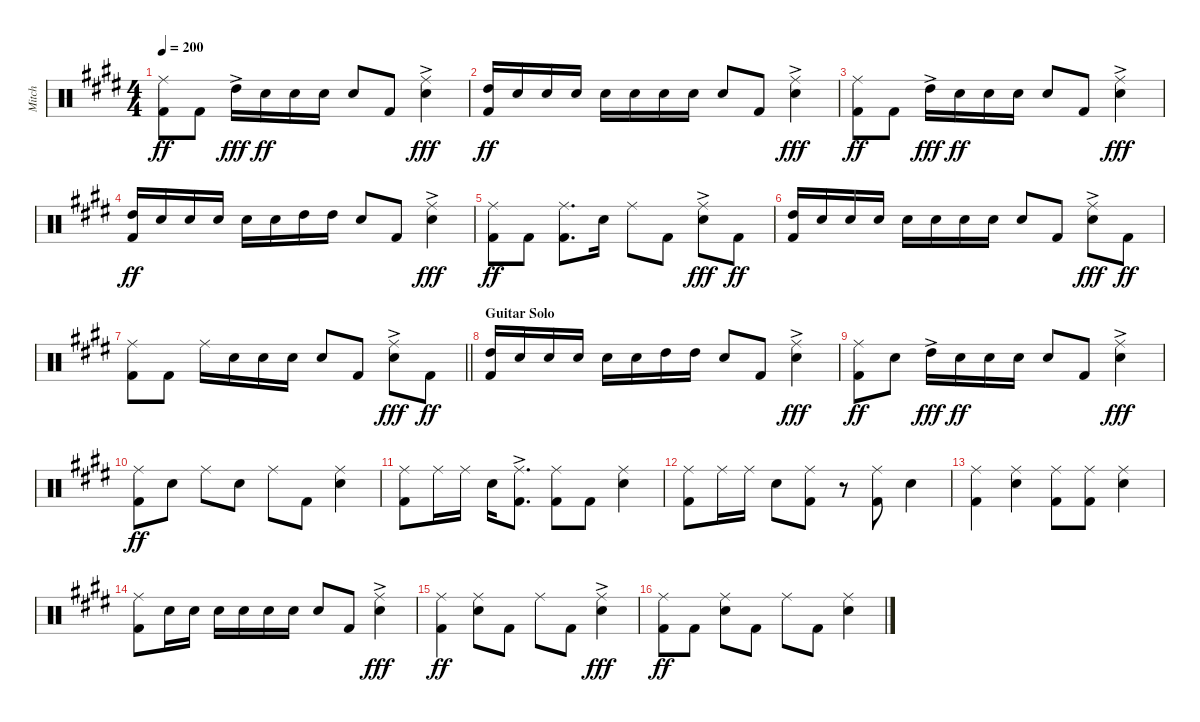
\track ("Mitch" "Mitch") {instrument percussion}
\staff {score}
\articulation defaults
\ts (4 4)
\tempo 200
\clef neutral
\ks e
("Ride (middle)" "Kick (hit) 2").8{dy ff} "Kick (hit) 2".8 "High Tom (hit)"{ac}.16{dy fff} "Snare (hit) 2".16{dy ff} "Snare (hit) 2".16 "Snare (hit) 2".16 "Snare (hit) 2".8 "Kick (hit) 2".8 ("Ride (middle)" "Snare (hit) 2"{ac}).4{dy fff} |
("High Tom (hit)" "Kick (hit) 2").16{dy ff} "Snare (hit) 2".16 "Snare (hit) 2".16 "Snare (hit) 2".16 "Snare (hit) 2".16 "Snare (hit) 2".16 "Snare (hit) 2".16 "Snare (hit) 2".16 "Snare (hit) 2".8 "Kick (hit) 2".8 ("Ride (middle)" "Snare (hit) 2"{ac}).4{dy fff} |
("Ride (middle)" "Kick (hit) 2").8{dy ff} "Kick (hit) 2".8 "High Tom (hit)"{ac}.16{dy fff} "Snare (hit) 2".16{dy ff} "Snare (hit) 2".16 "Snare (hit) 2".16 "Snare (hit) 2".8 "Kick (hit) 2".8 ("Ride (middle)" "Snare (hit) 2"{ac}).4{dy fff} |
("High Tom (hit)" "Kick (hit) 2").16{dy ff} "Snare (hit) 2".16 "Snare (hit) 2".16 "Snare (hit) 2".16 "Snare (hit) 2".16 "Snare (hit) 2".16 "High Tom (hit)".16 "High Tom (hit)".16 "Snare (hit) 2".8 "Kick (hit) 2".8 ("Ride (middle)" "Snare (hit) 2"{ac}).4{dy fff} |
("Ride (middle)" "Kick (hit) 2").8{dy ff} "Kick (hit) 2".8 ("Ride (middle)" "Kick (hit) 2").8{d} "Snare (hit) 2".16 "Ride (middle)".8 "Kick (hit) 2".8 ("Ride (middle)" "Snare (hit) 2"{ac}).8{dy fff} "Kick (hit) 2".8{dy ff} |
("High Tom (hit)" "Kick (hit) 2").16 "Snare (hit) 2".16 "Snare (hit) 2".16 "Snare (hit) 2".16 "Snare (hit) 2".16 "Snare (hit) 2".16 "Snare (hit) 2".16 "Snare (hit) 2".16 "Snare (hit) 2".8 "Kick (hit) 2".8 ("Ride (middle)" "Snare (hit) 2"{ac}).8{dy fff} "Kick (hit) 2".8{dy ff} |
\barLineRight lightlight
("Ride (middle)" "Kick (hit) 2").8 "Kick (hit) 2".8 "Ride (middle)".16 "Snare (hit) 2".16 "Snare (hit) 2".16 "Snare (hit) 2".16 "Snare (hit) 2".8 "Kick (hit) 2".8 ("Ride (middle)" "Snare (hit) 2"{ac}).8{dy fff} "Kick (hit) 2".8{dy ff} |
\section ("" "Guitar Solo")
("High Tom (hit)" "Kick (hit) 2").16 "Snare (hit) 2".16 "Snare (hit) 2".16 "Snare (hit) 2".16 "Snare (hit) 2".16 "Snare (hit) 2".16 "High Tom (hit)".16 "High Tom (hit)".16 "Snare (hit) 2".8 "Kick (hit) 2".8 ("Ride (middle)" "Snare (hit) 2"{ac}).4{dy fff} |
("Ride (middle)" "Kick (hit) 2").8{dy ff} "Snare (hit) 2".8 "High Tom (hit)"{ac}.16{dy fff} "Snare (hit) 2".16{dy ff} "Snare (hit) 2".16 "Snare (hit) 2".16 "Snare (hit) 2".8 "Kick (hit) 2".8 ("Ride (middle)" "Snare (hit) 2"{ac}).4{dy fff} |
("Ride (middle)" "Kick (hit) 2").8{dy ff} "Snare (hit) 2".8 "Ride (middle)".8 "Snare (hit) 2".8 "Ride (middle)".8 "Kick (hit) 2".8 ("Ride (middle)" "Snare (hit) 2").4 |
("Ride (middle)" "Kick (hit) 2").8 "Ride (middle)".16 "Ride (middle)".16 "Snare (hit) 2".16 ("Ride (middle)"{ac} "Kick (hit) 2").8{d} ("Ride (middle)" "Kick (hit) 2").8 "Kick (hit) 2".8 ("Ride (middle)" "Snare (hit) 2").4 |
("Ride (middle)" "Kick (hit) 2").8 "Ride (middle)".16 "Ride (middle)".16 "Snare (hit) 2".8 ("Ride (middle)" "Kick (hit) 2").8 r.8 ("Ride (middle)" "Kick (hit) 2").8 "Snare (hit) 2".4 |
("Ride (middle)" "Kick (hit) 2").4 ("Ride (middle)" "Snare (hit) 2").4 ("Ride (middle)" "Kick (hit) 2").8 ("Ride (middle)" "Kick (hit) 2").8 ("Ride (middle)" "Snare (hit) 2").4 |
("Ride (middle)" "Kick (hit) 2").8 "Snare (hit) 2".16 "Snare (hit) 2".16 "Snare (hit) 2".16 "Snare (hit) 2".16 "Snare (hit) 2".16 "Snare (hit) 2".16 "Snare (hit) 2".8 "Kick (hit) 2".8 ("Ride (middle)"{ac} "Snare (hit) 2"{ac}).4{dy fff} |
("Ride (middle)" "Kick (hit) 2").4{dy ff} ("Ride (middle)" "Snare (hit) 2").8 "Kick (hit) 2".8 "Ride (middle)".8 "Kick (hit) 2".8 ("Ride (middle)" "Snare (hit) 2"{ac}).4{dy fff} |
("Ride (middle)" "Kick (hit) 2").8{dy ff} "Kick (hit) 2".8 ("Ride (middle)" "Snare (hit) 2").8 "Kick (hit) 2".8 "Ride (middle)".8 "Kick (hit) 2".8 ("Ride (middle)" "Snare (hit) 2").4
